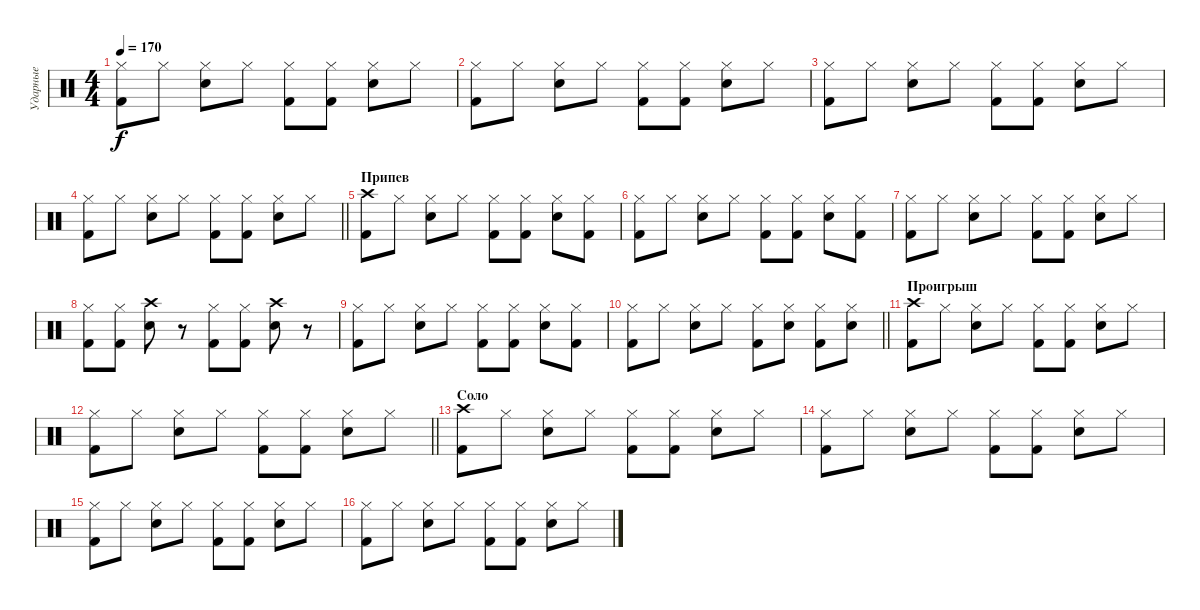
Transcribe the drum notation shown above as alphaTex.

\track ("Ударные" "Ударные") {instrument percussion}
\staff {score}
\articulation defaults
\ts (4 4)
\tempo 170
\clef neutral
\ks c
("Hi-Hat (closed)" "Kick (hit) 2").8{dy f} "Hi-Hat (closed)".8 ("Hi-Hat (closed)" "Snare (hit) 2").8 "Hi-Hat (closed)".8 ("Hi-Hat (closed)" "Kick (hit) 2").8 ("Hi-Hat (closed)" "Kick (hit) 2").8 ("Hi-Hat (closed)" "Snare (hit) 2").8 "Hi-Hat (closed)".8 |
("Hi-Hat (closed)" "Kick (hit) 2").8 "Hi-Hat (closed)".8 ("Hi-Hat (closed)" "Snare (hit) 2").8 "Hi-Hat (closed)".8 ("Hi-Hat (closed)" "Kick (hit) 2").8 ("Hi-Hat (closed)" "Kick (hit) 2").8 ("Hi-Hat (closed)" "Snare (hit) 2").8 "Hi-Hat (closed)".8 |
("Hi-Hat (closed)" "Kick (hit) 2").8 "Hi-Hat (closed)".8 ("Hi-Hat (closed)" "Snare (hit) 2").8 "Hi-Hat (closed)".8 ("Hi-Hat (closed)" "Kick (hit) 2").8 ("Hi-Hat (closed)" "Kick (hit) 2").8 ("Hi-Hat (closed)" "Snare (hit) 2").8 "Hi-Hat (closed)".8 |
\barLineRight lightlight
("Hi-Hat (closed)" "Kick (hit) 2").8 "Hi-Hat (closed)".8 ("Hi-Hat (closed)" "Snare (hit) 2").8 "Hi-Hat (closed)".8 ("Hi-Hat (closed)" "Kick (hit) 2").8 ("Hi-Hat (closed)" "Kick (hit) 2").8 ("Hi-Hat (closed)" "Snare (hit) 2").8 "Hi-Hat (closed)".8 |
\section ("" "Припев")
("Crash high (hit)" "Kick (hit) 2").8 "Hi-Hat (closed)".8 ("Hi-Hat (closed)" "Snare (hit) 2").8 "Hi-Hat (closed)".8 ("Hi-Hat (closed)" "Kick (hit) 2").8 ("Hi-Hat (closed)" "Kick (hit) 2").8 ("Hi-Hat (closed)" "Snare (hit) 2").8 ("Hi-Hat (closed)" "Kick (hit) 2").8 |
("Hi-Hat (closed)" "Kick (hit) 2").8 "Hi-Hat (closed)".8 ("Hi-Hat (closed)" "Snare (hit) 2").8 "Hi-Hat (closed)".8 ("Hi-Hat (closed)" "Kick (hit) 2").8 ("Hi-Hat (closed)" "Kick (hit) 2").8 ("Hi-Hat (closed)" "Snare (hit) 2").8 ("Hi-Hat (closed)" "Kick (hit) 2").8 |
("Hi-Hat (closed)" "Kick (hit) 2").8 "Hi-Hat (closed)".8 ("Hi-Hat (closed)" "Snare (hit) 2").8 "Hi-Hat (closed)".8 ("Hi-Hat (closed)" "Kick (hit) 2").8 ("Hi-Hat (closed)" "Kick (hit) 2").8 ("Hi-Hat (closed)" "Snare (hit) 2").8 "Hi-Hat (closed)".8 |
("Hi-Hat (closed)" "Kick (hit) 2").8 ("Hi-Hat (closed)" "Kick (hit) 2").8 ("Crash high (hit)" "Snare (hit) 2").8 r.8 ("Hi-Hat (closed)" "Kick (hit) 2").8 ("Hi-Hat (closed)" "Kick (hit) 2").8 ("Crash high (hit)" "Snare (hit) 2").8 r.8 |
("Hi-Hat (closed)" "Kick (hit) 2").8 "Hi-Hat (closed)".8 ("Hi-Hat (closed)" "Snare (hit) 2").8 "Hi-Hat (closed)".8 ("Hi-Hat (closed)" "Kick (hit) 2").8 ("Hi-Hat (closed)" "Kick (hit) 2").8 ("Hi-Hat (closed)" "Snare (hit) 2").8 ("Hi-Hat (closed)" "Kick (hit) 2").8 |
\barLineRight lightlight
("Hi-Hat (closed)" "Kick (hit) 2").8 "Hi-Hat (closed)".8 ("Hi-Hat (closed)" "Snare (hit) 2").8 "Hi-Hat (closed)".8 ("Hi-Hat (closed)" "Kick (hit) 2").8 ("Hi-Hat (closed)" "Snare (hit) 2").8 ("Hi-Hat (closed)" "Kick (hit) 2").8 ("Hi-Hat (closed)" "Snare (hit) 2").8 |
\section ("" "Проигрыш")
("Crash high (hit)" "Kick (hit) 2").8 "Hi-Hat (closed)".8 ("Hi-Hat (closed)" "Snare (hit) 2").8 "Hi-Hat (closed)".8 ("Hi-Hat (closed)" "Kick (hit) 2").8 ("Hi-Hat (closed)" "Kick (hit) 2").8 ("Hi-Hat (closed)" "Snare (hit) 2").8 "Hi-Hat (closed)".8 |
\barLineRight lightlight
("Hi-Hat (closed)" "Kick (hit) 2").8 "Hi-Hat (closed)".8 ("Hi-Hat (closed)" "Snare (hit) 2").8 "Hi-Hat (closed)".8 ("Hi-Hat (closed)" "Kick (hit) 2").8 ("Hi-Hat (closed)" "Kick (hit) 2").8 ("Hi-Hat (closed)" "Snare (hit) 2").8 "Hi-Hat (closed)".8 |
\section ("" "Соло")
("Crash high (hit)" "Kick (hit) 2").8 "Hi-Hat (closed)".8 ("Hi-Hat (closed)" "Snare (hit) 2").8 "Hi-Hat (closed)".8 ("Hi-Hat (closed)" "Kick (hit) 2").8 ("Hi-Hat (closed)" "Kick (hit) 2").8 ("Hi-Hat (closed)" "Snare (hit) 2").8 "Hi-Hat (closed)".8 |
("Hi-Hat (closed)" "Kick (hit) 2").8 "Hi-Hat (closed)".8 ("Hi-Hat (closed)" "Snare (hit) 2").8 "Hi-Hat (closed)".8 ("Hi-Hat (closed)" "Kick (hit) 2").8 ("Hi-Hat (closed)" "Kick (hit) 2").8 ("Hi-Hat (closed)" "Snare (hit) 2").8 "Hi-Hat (closed)".8 |
("Hi-Hat (closed)" "Kick (hit) 2").8 "Hi-Hat (closed)".8 ("Hi-Hat (closed)" "Snare (hit) 2").8 "Hi-Hat (closed)".8 ("Hi-Hat (closed)" "Kick (hit) 2").8 ("Hi-Hat (closed)" "Kick (hit) 2").8 ("Hi-Hat (closed)" "Snare (hit) 2").8 "Hi-Hat (closed)".8 |
("Hi-Hat (closed)" "Kick (hit) 2").8 "Hi-Hat (closed)".8 ("Hi-Hat (closed)" "Snare (hit) 2").8 "Hi-Hat (closed)".8 ("Hi-Hat (closed)" "Kick (hit) 2").8 ("Hi-Hat (closed)" "Kick (hit) 2").8 ("Hi-Hat (closed)" "Snare (hit) 2").8 "Hi-Hat (closed)".8
